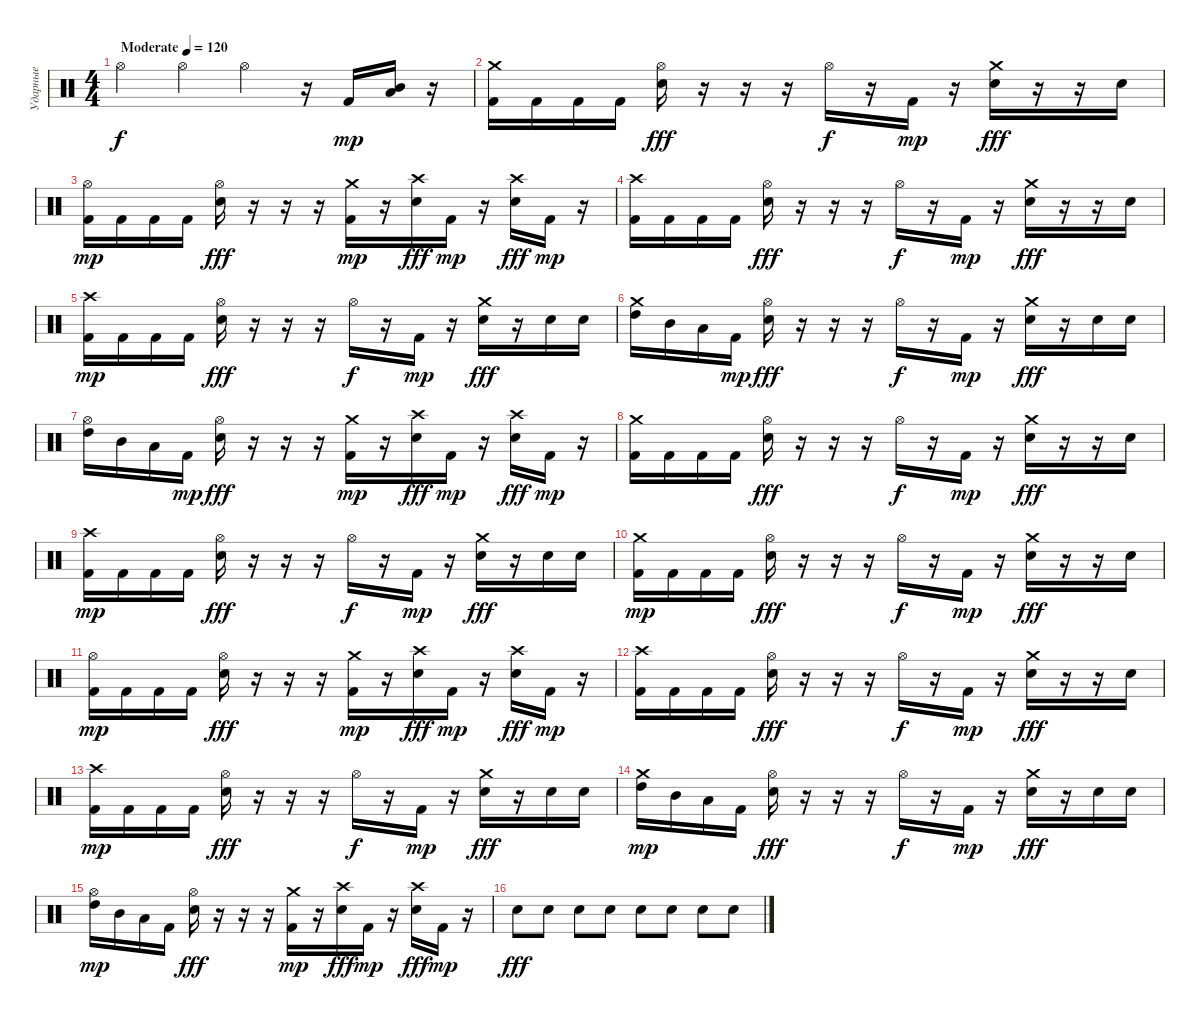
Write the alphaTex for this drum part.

\track ("Ударные" "Ударные") {instrument percussion}
\staff {score}
\articulation defaults
\ts (4 4)
\tempo (120 "Moderate")
\clef neutral
\ks c "Hi-Hat (open)".4{dy f} "Hi-Hat (open)".4 "Hi-Hat (open)".4
r.16 "Kick (hit) 2".16{dy mp} ("Mid Tom (hit)" "Low Tom (hit)").16 r.16 |
("Crash medium (hit)" "Kick (hit) 2").16 "Kick (hit) 2".16 "Kick (hit) 2".16 "Kick (hit) 2".16 ("Hi-Hat (open)" "Snare (hit) 2").16{dy fff} r.16 r.16 r.16 "Hi-Hat (open)".16{dy f} r.16 "Kick (hit) 2".16{dy mp} r.16 ("Crash medium (hit)" "Snare (hit) 2").16{dy fff} r.16 r.16 "Snare (hit) 2".16 |
("Hi-Hat (open)" "Kick (hit) 2").16{dy mp} "Kick (hit) 2".16 "Kick (hit) 2".16 "Kick (hit) 2".16 ("Hi-Hat (open)" "Snare (hit) 2").16{dy fff} r.16 r.16 r.16 ("Crash medium (hit)" "Kick (hit) 2").16{dy mp} r.16 ("Crash high (hit)" "Snare (hit) 2").16{dy fff} "Kick (hit) 2".16{dy mp} r.16 ("Crash high (hit)" "Snare (hit) 2").16{dy fff} "Kick (hit) 2".16{dy mp} r.16 |
("Crash high (hit)" "Kick (hit) 2").16 "Kick (hit) 2".16 "Kick (hit) 2".16 "Kick (hit) 2".16 ("Hi-Hat (open)" "Snare (hit) 2").16{dy fff} r.16 r.16 r.16 "Hi-Hat (open)".16{dy f} r.16 "Kick (hit) 2".16{dy mp} r.16 ("Crash medium (hit)" "Snare (hit) 2").16{dy fff} r.16 r.16 "Snare (hit) 2".16 |
("Crash high (hit)" "Kick (hit) 2").16{dy mp} "Kick (hit) 2".16 "Kick (hit) 2".16 "Kick (hit) 2".16 ("Hi-Hat (open)" "Snare (hit) 2").16{dy fff} r.16 r.16 r.16 "Hi-Hat (open)".16{dy f} r.16 "Kick (hit) 2".16{dy mp} r.16 ("Crash medium (hit)" "Snare (hit) 2").16{dy fff} r.16 "Snare (hit) 2".16 "Snare (hit) 2".16 |
("Crash medium (hit)" "High Tom (hit)").16 "Mid Tom (hit)".16 "Low Tom (hit)".16 "Kick (hit) 2".16{dy mp} ("Hi-Hat (open)" "Snare (hit) 2").16{dy fff} r.16 r.16 r.16 "Hi-Hat (open)".16{dy f} r.16 "Kick (hit) 2".16{dy mp} r.16 ("Crash medium (hit)" "Snare (hit) 2").16{dy fff} r.16 "Snare (hit) 2".16 "Snare (hit) 2".16 |
("Hi-Hat (open)" "High Tom (hit)").16 "Mid Tom (hit)".16 "Low Tom (hit)".16 "Kick (hit) 2".16{dy mp} ("Hi-Hat (open)" "Snare (hit) 2").16{dy fff} r.16 r.16 r.16 ("Crash medium (hit)" "Kick (hit) 2").16{dy mp} r.16 ("Crash high (hit)" "Snare (hit) 2").16{dy fff} "Kick (hit) 2".16{dy mp} r.16 ("Crash high (hit)" "Snare (hit) 2").16{dy fff} "Kick (hit) 2".16{dy mp} r.16 |
("Crash medium (hit)" "Kick (hit) 2").16 "Kick (hit) 2".16 "Kick (hit) 2".16 "Kick (hit) 2".16 ("Hi-Hat (open)" "Snare (hit) 2").16{dy fff} r.16 r.16 r.16 "Hi-Hat (open)".16{dy f} r.16 "Kick (hit) 2".16{dy mp} r.16 ("Crash medium (hit)" "Snare (hit) 2").16{dy fff} r.16 r.16 "Snare (hit) 2".16 |
("Crash high (hit)" "Kick (hit) 2").16{dy mp} "Kick (hit) 2".16 "Kick (hit) 2".16 "Kick (hit) 2".16 ("Hi-Hat (open)" "Snare (hit) 2").16{dy fff} r.16 r.16 r.16 "Hi-Hat (open)".16{dy f} r.16 "Kick (hit) 2".16{dy mp} r.16 ("Crash medium (hit)" "Snare (hit) 2").16{dy fff} r.16 "Snare (hit) 2".16 "Snare (hit) 2".16 |
("Crash medium (hit)" "Kick (hit) 2").16{dy mp} "Kick (hit) 2".16 "Kick (hit) 2".16 "Kick (hit) 2".16 ("Hi-Hat (open)" "Snare (hit) 2").16{dy fff} r.16 r.16 r.16 "Hi-Hat (open)".16{dy f} r.16 "Kick (hit) 2".16{dy mp} r.16 ("Crash medium (hit)" "Snare (hit) 2").16{dy fff} r.16 r.16 "Snare (hit) 2".16 |
("Hi-Hat (open)" "Kick (hit) 2").16{dy mp} "Kick (hit) 2".16 "Kick (hit) 2".16 "Kick (hit) 2".16 ("Hi-Hat (open)" "Snare (hit) 2").16{dy fff} r.16 r.16 r.16 ("Crash medium (hit)" "Kick (hit) 2").16{dy mp} r.16 ("Crash high (hit)" "Snare (hit) 2").16{dy fff} "Kick (hit) 2".16{dy mp} r.16 ("Crash high (hit)" "Snare (hit) 2").16{dy fff} "Kick (hit) 2".16{dy mp} r.16 |
("Crash high (hit)" "Kick (hit) 2").16 "Kick (hit) 2".16 "Kick (hit) 2".16 "Kick (hit) 2".16 ("Hi-Hat (open)" "Snare (hit) 2").16{dy fff} r.16 r.16 r.16 "Hi-Hat (open)".16{dy f} r.16 "Kick (hit) 2".16{dy mp} r.16 ("Crash medium (hit)" "Snare (hit) 2").16{dy fff} r.16 r.16 "Snare (hit) 2".16 |
("Crash high (hit)" "Kick (hit) 2").16{dy mp} "Kick (hit) 2".16 "Kick (hit) 2".16 "Kick (hit) 2".16 ("Hi-Hat (open)" "Snare (hit) 2").16{dy fff} r.16 r.16 r.16 "Hi-Hat (open)".16{dy f} r.16 "Kick (hit) 2".16{dy mp} r.16 ("Crash medium (hit)" "Snare (hit) 2").16{dy fff} r.16 "Snare (hit) 2".16 "Snare (hit) 2".16 |
("Crash medium (hit)" "High Tom (hit)").16{dy mp} "Mid Tom (hit)".16 "Low Tom (hit)".16 "Kick (hit) 2".16 ("Hi-Hat (open)" "Snare (hit) 2").16{dy fff} r.16 r.16 r.16 "Hi-Hat (open)".16{dy f} r.16 "Kick (hit) 2".16{dy mp} r.16 ("Crash medium (hit)" "Snare (hit) 2").16{dy fff} r.16 "Snare (hit) 2".16 "Snare (hit) 2".16 |
("Hi-Hat (open)" "High Tom (hit)").16{dy mp} "Mid Tom (hit)".16 "Low Tom (hit)".16 "Kick (hit) 2".16 ("Hi-Hat (open)" "Snare (hit) 2").16{dy fff} r.16 r.16 r.16 ("Crash medium (hit)" "Kick (hit) 2").16{dy mp} r.16 ("Crash high (hit)" "Snare (hit) 2").16{dy fff} "Kick (hit) 2".16{dy mp} r.16 ("Crash high (hit)" "Snare (hit) 2").16{dy fff} "Kick (hit) 2".16{dy mp} r.16 |
"Snare (hit) 2".8{dy fff} "Snare (hit) 2".8 "Snare (hit) 2".8 "Snare (hit) 2".8 "Snare (hit) 2".8 "Snare (hit) 2".8 "Snare (hit) 2".8 "Snare (hit) 2".8
